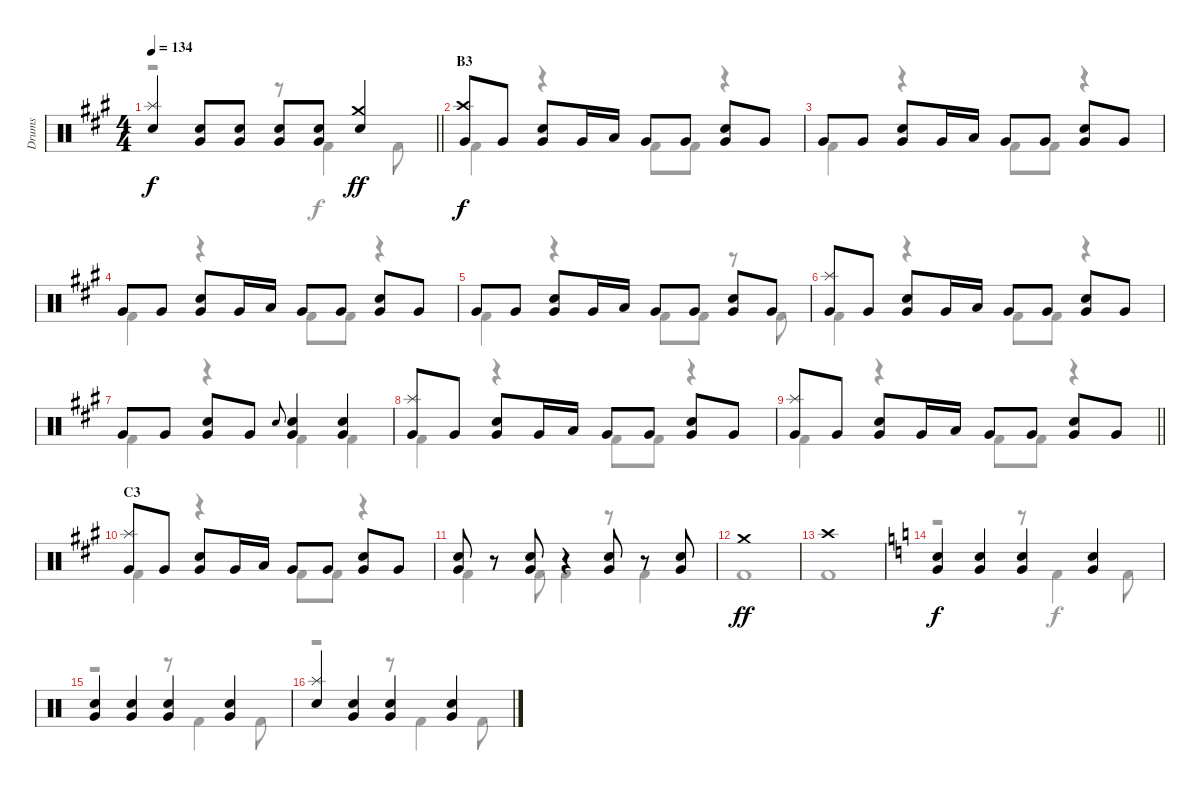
\track ("Drums" "Drums") {instrument percussion}
\staff {score}
\articulation defaults
\voice
\ts (4 4)
\tempo 134
\clef neutral
\barLineRight lightlight
\ks a
("Splash (hit)" "Snare (hit) 2").4{dy f} ("Snare (hit) 2" "Very Low Tom (hit)").8 ("Snare (hit) 2" "Very Low Tom (hit)").8 ("Snare (hit) 2" "Very Low Tom (hit)").8 ("Snare (hit) 2" "Very Low Tom (hit)").8 ("Crash medium (hit)" "Snare (hit) 2").4{dy ff} |
\section ("" "B3")
("Crash high (hit)" "Very Low Tom (hit)").8{dy f} "Very Low Tom (hit)".8 ("Very Low Tom (hit)" "Snare (hit) 2").8 "Very Low Tom (hit)".16 "Low Tom (hit)".16 "Very Low Tom (hit)".8 "Very Low Tom (hit)".8 ("Very Low Tom (hit)" "Snare (hit) 2").8 "Very Low Tom (hit)".8 |
"Very Low Tom (hit)".8 "Very Low Tom (hit)".8 ("Very Low Tom (hit)" "Snare (hit) 2").8 "Very Low Tom (hit)".16 "Low Tom (hit)".16 "Very Low Tom (hit)".8 "Very Low Tom (hit)".8 ("Very Low Tom (hit)" "Snare (hit) 2").8 "Very Low Tom (hit)".8 |
"Very Low Tom (hit)".8 "Very Low Tom (hit)".8 ("Very Low Tom (hit)" "Snare (hit) 2").8 "Very Low Tom (hit)".16 "Low Tom (hit)".16 "Very Low Tom (hit)".8 "Very Low Tom (hit)".8 ("Very Low Tom (hit)" "Snare (hit) 2").8 "Very Low Tom (hit)".8 |
"Very Low Tom (hit)".8 "Very Low Tom (hit)".8 ("Very Low Tom (hit)" "Snare (hit) 2").8 "Very Low Tom (hit)".16 "Low Tom (hit)".16 "Very Low Tom (hit)".8 "Very Low Tom (hit)".8 ("Very Low Tom (hit)" "Snare (hit) 2").8 "Very Low Tom (hit)".8 |
("Splash (hit)" "Very Low Tom (hit)").8 "Very Low Tom (hit)".8 ("Very Low Tom (hit)" "Snare (hit) 2").8 "Very Low Tom (hit)".16 "Low Tom (hit)".16 "Very Low Tom (hit)".8 "Very Low Tom (hit)".8 ("Very Low Tom (hit)" "Snare (hit) 2").8 "Very Low Tom (hit)".8 |
"Very Low Tom (hit)".8 "Very Low Tom (hit)".8 ("Very Low Tom (hit)" "Snare (hit) 2").8 "Very Low Tom (hit)".8 "Snare (hit) 2".8{gr onbeat} ("Very Low Tom (hit)" "Snare (hit) 2").4 ("Very Low Tom (hit)" "Snare (hit) 2").4 |
("Splash (hit)" "Very Low Tom (hit)").8 "Very Low Tom (hit)".8 ("Very Low Tom (hit)" "Snare (hit) 2").8 "Very Low Tom (hit)".16 "Low Tom (hit)".16 "Very Low Tom (hit)".8 "Very Low Tom (hit)".8 ("Very Low Tom (hit)" "Snare (hit) 2").8 "Very Low Tom (hit)".8 |
\barLineRight lightlight
("Splash (hit)" "Very Low Tom (hit)").8 "Very Low Tom (hit)".8 ("Very Low Tom (hit)" "Snare (hit) 2").8 "Very Low Tom (hit)".16 "Low Tom (hit)".16 "Very Low Tom (hit)".8 "Very Low Tom (hit)".8 ("Very Low Tom (hit)" "Snare (hit) 2").8 "Very Low Tom (hit)".8 |
\section ("" "C3")
("Splash (hit)" "Very Low Tom (hit)").8 "Very Low Tom (hit)".8 ("Very Low Tom (hit)" "Snare (hit) 2").8 "Very Low Tom (hit)".16 "Low Tom (hit)".16 "Very Low Tom (hit)".8 "Very Low Tom (hit)".8 ("Very Low Tom (hit)" "Snare (hit) 2").8 "Very Low Tom (hit)".8 |
("Very Low Tom (hit)" "Snare (hit) 2").8 r.8 ("Very Low Tom (hit)" "Snare (hit) 2").8 r.4 ("Very Low Tom (hit)" "Snare (hit) 2").8 r.8 ("Very Low Tom (hit)" "Snare (hit) 2").8 |
"Crash medium (hit)".1{dy ff} |
"Crash high (hit)".1 |
\ks c
("Snare (hit) 2" "Very Low Tom (hit)").4{dy f} ("Snare (hit) 2" "Very Low Tom (hit)").4 ("Snare (hit) 2" "Very Low Tom (hit)").4 ("Snare (hit) 2" "Very Low Tom (hit)").4 |
("Snare (hit) 2" "Very Low Tom (hit)").4 ("Snare (hit) 2" "Very Low Tom (hit)").4 ("Snare (hit) 2" "Very Low Tom (hit)").4 ("Snare (hit) 2" "Very Low Tom (hit)").4 |
("Splash (hit)" "Snare (hit) 2").4 ("Snare (hit) 2" "Very Low Tom (hit)").4 ("Snare (hit) 2" "Very Low Tom (hit)").4 ("Snare (hit) 2" "Very Low Tom (hit)").4
\voice
\clef neutral
\ottava regular
\simile none
\barLineRight lightlight
\ks a
r.2{dy f} r.8 "Kick (hit) 2".4 "Kick (hit) 2".8 |
"Kick (hit) 2".4 r.4 "Kick (hit) 2".8 "Kick (hit) 2".8 r.4 |
"Kick (hit) 2".4 r.4 "Kick (hit) 2".8 "Kick (hit) 2".8 r.4 |
"Kick (hit) 2".4 r.4 "Kick (hit) 2".8 "Kick (hit) 2".8 r.4 |
"Kick (hit) 2".4 r.4 "Kick (hit) 2".8 "Kick (hit) 2".8 r.8 "Kick (hit) 2".8 |
"Kick (hit) 2".4 r.4 "Kick (hit) 2".8 "Kick (hit) 2".8 r.4 |
"Kick (hit) 2".4 r.4 "Kick (hit) 2".4 "Kick (hit) 2".4 |
"Kick (hit) 2".4 r.4 "Kick (hit) 2".8 "Kick (hit) 2".8 r.4 |
\barLineRight lightlight "Kick (hit) 2".4
r.4 "Kick (hit) 2".8 "Kick (hit) 2".8 r.4 |
"Kick (hit) 2".4 r.4 "Kick (hit) 2".8 "Kick (hit) 2".8 r.4 |
"Kick (hit) 2".4 "Kick (hit) 2".8 "Kick (hit) 2".4 r.8 "Kick (hit) 2".4 |
"Kick (hit) 2".1{dy ff} |
"Kick (hit) 2".1 |
\ks c
r.2 r.8 "Kick (hit) 2".4{dy f} "Kick (hit) 2".8 |
r.2 r.8 "Kick (hit) 2".4 "Kick (hit) 2".8 |
r.2 r.8 "Kick (hit) 2".4 "Kick (hit) 2".8
